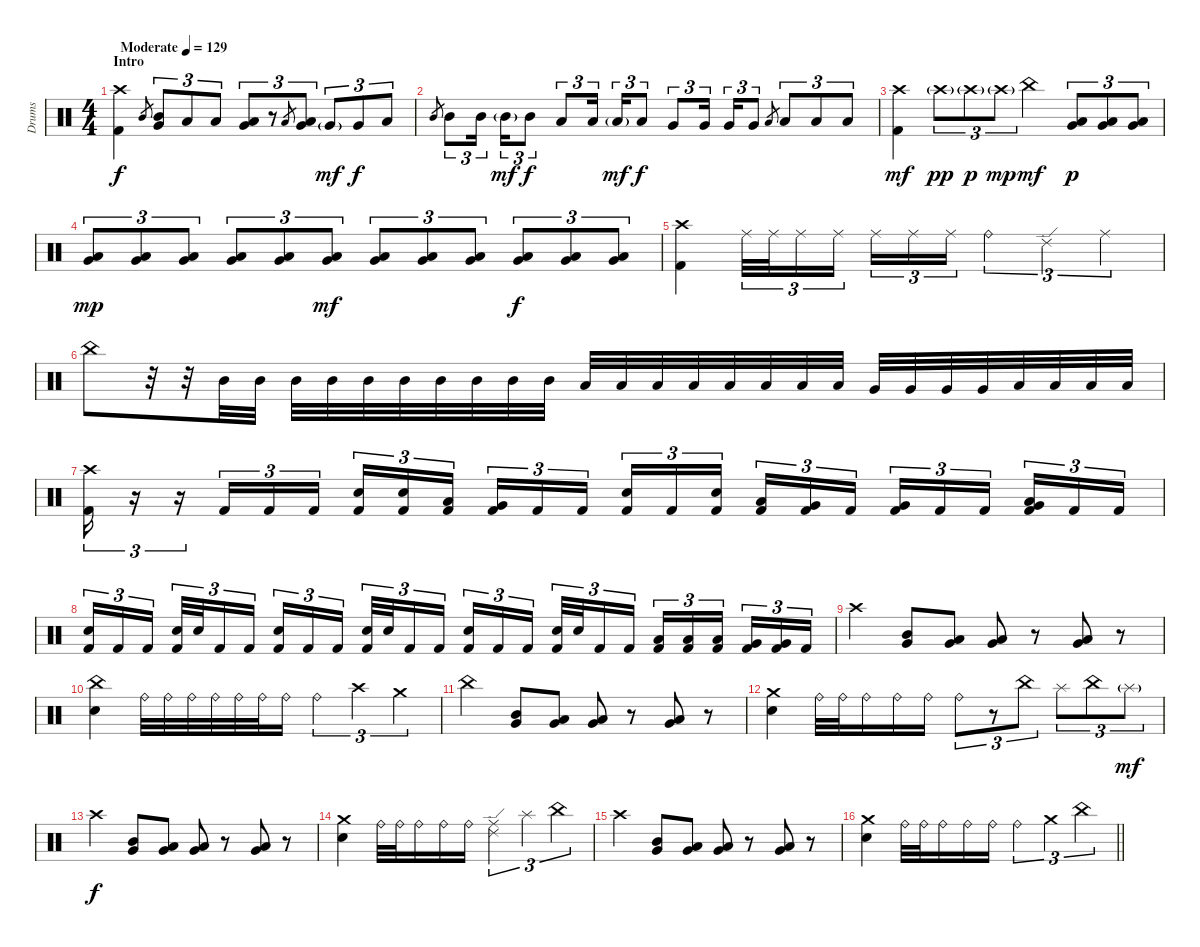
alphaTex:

\track ("Drums" "Drums") {instrument percussion}
\staff {score}
\articulation defaults
\ts (4 4)
\section ("" "Intro")
\tempo (129 "Moderate")
\clef neutral
\ks c
("Crash high (hit)" "Kick (hit) 2").4{dy f} "Mid Tom (hit)".8{gr} ("Mid Tom (hit)" "Very Low Tom (hit)").8{tu (3 2)} "Low Tom (hit)".8{tu (3 2)} "Low Tom (hit)".8{tu (3 2)} ("Very Low Tom (hit)" "Low Floor Tom (hit)").8{tu (3 2)} r.8{tu (3 2)} "Low Tom (hit)".8{gr} ("Low Tom (hit)" "Very Low Tom (hit)").8{tu (3 2)} "Very Low Tom (hit)"{g}.8{tu (3 2) dy mf} "Very Low Tom (hit)".8{tu (3 2) dy f} "Low Floor Tom (hit)".8{tu (3 2)} |
"Mid Tom (hit)".8{gr} "Mid Tom (hit)".8{tu (3 2)} "Mid Tom (hit)".16{tu (3 2) beam splitsecondary} "Mid Tom (hit)"{g}.16{tu (3 2) dy mf} "Mid Tom (hit)".8{tu (3 2) dy f} "Low Tom (hit)".8{tu (3 2)} "Low Tom (hit)".16{tu (3 2) beam splitsecondary} "Low Tom (hit)"{g}.16{tu (3 2) dy mf} "Low Tom (hit)".8{tu (3 2) dy f} "Very Low Tom (hit)".8{tu (3 2)} "Very Low Tom (hit)".16{tu (3 2) beam splitsecondary} "Very Low Tom (hit)".16{tu (3 2)} "Very Low Tom (hit)".8{tu (3 2)} "Low Floor Tom (hit)".8{gr} "Low Floor Tom (hit)".8{tu (3 2)} "Low Floor Tom (hit)".8{tu (3 2)} "Low Floor Tom (hit)".8{tu (3 2)} |
("Crash high (hit)" "Kick (hit) 2").4{dy mf} "Crash high (hit)"{g}.8{tu (3 2) dy pp} "Crash high (hit)"{g}.8{tu (3 2) dy p} "Crash high (hit)"{g}.8{tu (3 2) dy mp} "China (hit)".4{dy mf} ("Very Low Tom (hit)" "Low Floor Tom (hit)").8{tu (3 2) dy p} ("Very Low Tom (hit)" "Low Floor Tom (hit)").8{tu (3 2)} ("Very Low Tom (hit)" "Low Floor Tom (hit)").8{tu (3 2)} |
("Very Low Tom (hit)" "Low Floor Tom (hit)").8{tu (3 2) dy mp} ("Very Low Tom (hit)" "Low Floor Tom (hit)").8{tu (3 2)} ("Very Low Tom (hit)" "Low Floor Tom (hit)").8{tu (3 2)} ("Very Low Tom (hit)" "Low Floor Tom (hit)").8{tu (3 2)} ("Very Low Tom (hit)" "Low Floor Tom (hit)").8{tu (3 2)} ("Very Low Tom (hit)" "Low Floor Tom (hit)").8{tu (3 2) dy mf} ("Very Low Tom (hit)" "Low Floor Tom (hit)").8{tu (3 2)} ("Very Low Tom (hit)" "Low Floor Tom (hit)").8{tu (3 2)} ("Very Low Tom (hit)" "Low Floor Tom (hit)").8{tu (3 2)} ("Very Low Tom (hit)" "Low Floor Tom (hit)").8{tu (3 2) dy f} ("Very Low Tom (hit)" "Low Floor Tom (hit)").8{tu (3 2)} ("Very Low Tom (hit)" "Low Floor Tom (hit)").8{tu (3 2)} |
("Crash high (hit)" "Kick (hit) 2").4 "Ride (middle)".32{tu (3 2)} "Ride (middle)".32{tu (3 2)} "Ride (middle)".16{tu (3 2)} "Ride (middle)".16{tu (3 2) beam splitsecondary} "Ride (middle)".16{tu (3 2)} "Ride (middle)".16{tu (3 2)} "Ride (middle)".16{tu (3 2)} "Ride (bell)".4{tu (3 2)} "Ride (edge) 2".4{tu (3 2)} "Ride (middle)".4{tu (3 2)} |
"China (hit)".8 r.32 r.32 "Mid Tom (hit)".32 "Mid Tom (hit)".32 "Mid Tom (hit)".32 "Mid Tom (hit)".32 "Mid Tom (hit)".32 "Mid Tom (hit)".32 "Mid Tom (hit)".32 "Mid Tom (hit)".32 "Mid Tom (hit)".32 "Mid Tom (hit)".32 "Low Tom (hit)".32 "Low Tom (hit)".32 "Low Tom (hit)".32 "Low Tom (hit)".32 "Low Tom (hit)".32 "Low Tom (hit)".32 "Low Tom (hit)".32 "Low Tom (hit)".32 "Very Low Tom (hit)".32 "Very Low Tom (hit)".32 "Very Low Tom (hit)".32 "Very Low Tom (hit)".32 "Low Floor Tom (hit)".32 "Low Floor Tom (hit)".32 "Low Floor Tom (hit)".32 "Low Floor Tom (hit)".32 |
("Crash high (hit)" "Kick (hit) 2").16{tu (3 2)} r.16{tu (3 2)} r.16{tu (3 2)} "Kick (hit) 2".16{tu (3 2)} "Kick (hit) 2".16{tu (3 2)} "Kick (hit) 2".16{tu (3 2)} ("Snare (hit) 2" "Kick (hit) 2").16{tu (3 2)} ("Snare (hit) 2" "Kick (hit) 2").16{tu (3 2)} ("Low Tom (hit)" "Kick (hit) 2").16{tu (3 2) beam splitsecondary} ("Very Low Tom (hit)" "Kick (hit) 2").16{tu (3 2)} "Kick (hit) 2".16{tu (3 2)} "Kick (hit) 2".16{tu (3 2)} ("Snare (hit) 2" "Kick (hit) 2").16{tu (3 2)} "Kick (hit) 2".16{tu (3 2)} ("Snare (hit) 2" "Kick (hit) 2").16{tu (3 2) beam splitsecondary} ("Low Tom (hit)" "Kick (hit) 2").16{tu (3 2)} ("Very Low Tom (hit)" "Kick (hit) 2").16{tu (3 2)} "Kick (hit) 2".16{tu (3 2)} ("Very Low Tom (hit)" "Kick (hit) 2").16{tu (3 2)} "Kick (hit) 2".16{tu (3 2)} "Kick (hit) 2".16{tu (3 2) beam splitsecondary} ("Very Low Tom (hit)" "Low Floor Tom (hit)" "Kick (hit) 2").16{tu (3 2)} "Kick (hit) 2".16{tu (3 2)} "Kick (hit) 2".16{tu (3 2)} |
("Snare (hit) 2" "Kick (hit) 2").16{tu (3 2)} "Kick (hit) 2".16{tu (3 2)} "Kick (hit) 2".16{tu (3 2) beam splitsecondary} ("Snare (hit) 2" "Kick (hit) 2").32{tu (3 2)} "Snare (hit) 2".32{tu (3 2)} "Kick (hit) 2".16{tu (3 2)} "Kick (hit) 2".16{tu (3 2)} ("Snare (hit) 2" "Kick (hit) 2").16{tu (3 2)} "Kick (hit) 2".16{tu (3 2)} "Kick (hit) 2".16{tu (3 2) beam splitsecondary} ("Snare (hit) 2" "Kick (hit) 2").32{tu (3 2)} "Snare (hit) 2".32{tu (3 2)} "Kick (hit) 2".16{tu (3 2)} "Kick (hit) 2".16{tu (3 2)} ("Snare (hit) 2" "Kick (hit) 2").16{tu (3 2)} "Kick (hit) 2".16{tu (3 2)} "Kick (hit) 2".16{tu (3 2) beam splitsecondary} ("Snare (hit) 2" "Kick (hit) 2").32{tu (3 2)} "Snare (hit) 2".32{tu (3 2)} "Kick (hit) 2".16{tu (3 2)} "Kick (hit) 2".16{tu (3 2)} ("Low Tom (hit)" "Kick (hit) 2").16{tu (3 2)} ("Low Tom (hit)" "Kick (hit) 2").16{tu (3 2)} ("Low Tom (hit)" "Kick (hit) 2").16{tu (3 2) beam splitsecondary} ("Very Low Tom (hit)" "Kick (hit) 2").16{tu (3 2)} ("Very Low Tom (hit)" "Kick (hit) 2").16{tu (3 2)} "Kick (hit) 2".16{tu (3 2)} |
"Crash high (hit)".4 ("Mid Tom (hit)" "Very Low Tom (hit)").8 ("Low Tom (hit)" "Very Low Tom (hit)").8 ("Very Low Tom (hit)" "Low Floor Tom (hit)").8 r.8 ("Very Low Tom (hit)" "Low Floor Tom (hit)").8 r.8 |
("China (hit)" "Snare (hit) 2").4 "Ride (bell)".32 "Ride (bell)".32 "Ride (bell)".32 "Ride (bell)".32 "Ride (bell)".32 "Ride (bell)".32 "Ride (bell)".16 "Ride (bell)".4{tu (3 2)} "Crash high (hit)".4{tu (3 2)} "Crash medium (hit)".4{tu (3 2)} |
"China (hit)".4 ("Mid Tom (hit)" "Very Low Tom (hit)").8 ("Low Tom (hit)" "Very Low Tom (hit)").8 ("Very Low Tom (hit)" "Low Floor Tom (hit)").8 r.8 ("Very Low Tom (hit)" "Low Floor Tom (hit)").8 r.8 |
("Crash medium (hit)" "Snare (hit) 2").4 "Ride (bell)".32 "Ride (bell)".32 "Ride (bell)".16 "Ride (bell)".16 "Ride (bell)".16 "Ride (bell)".8{tu (3 2)} r.8{tu (3 2)} "China (hit)".8{tu (3 2)} "Splash (hit)".8{tu (3 2)} "China (hit)".8{tu (3 2)} "Splash (hit)"{g}.8{tu (3 2) dy mf} |
"Crash high (hit)".4{dy f} ("Mid Tom (hit)" "Very Low Tom (hit)").8 ("Low Tom (hit)" "Very Low Tom (hit)").8 ("Very Low Tom (hit)" "Low Floor Tom (hit)").8 r.8 ("Very Low Tom (hit)" "Low Floor Tom (hit)").8 r.8 |
("Crash medium (hit)" "Snare (hit) 2").4 "Ride (bell)".32 "Ride (bell)".32 "Ride (bell)".16 "Ride (bell)".16 "Ride (bell)".16 ("Ride (middle)" "Ride (edge) 2").4{tu (3 2)} "Splash (hit)".4{tu (3 2)} "China (hit)".4{tu (3 2)} |
"Crash high (hit)".4 ("Mid Tom (hit)" "Very Low Tom (hit)").8 ("Low Tom (hit)" "Very Low Tom (hit)").8 ("Very Low Tom (hit)" "Low Floor Tom (hit)").8 r.8 ("Very Low Tom (hit)" "Low Floor Tom (hit)").8 r.8 |
\barLineRight lightlight
("Crash medium (hit)" "Snare (hit) 2").4 "Ride (bell)".32 "Ride (bell)".32 "Ride (bell)".16 "Ride (bell)".16 "Ride (bell)".16 "Ride (bell)".4{tu (3 2)} "Crash medium (hit)".4{tu (3 2)} "China (hit)".4{tu (3 2)}
